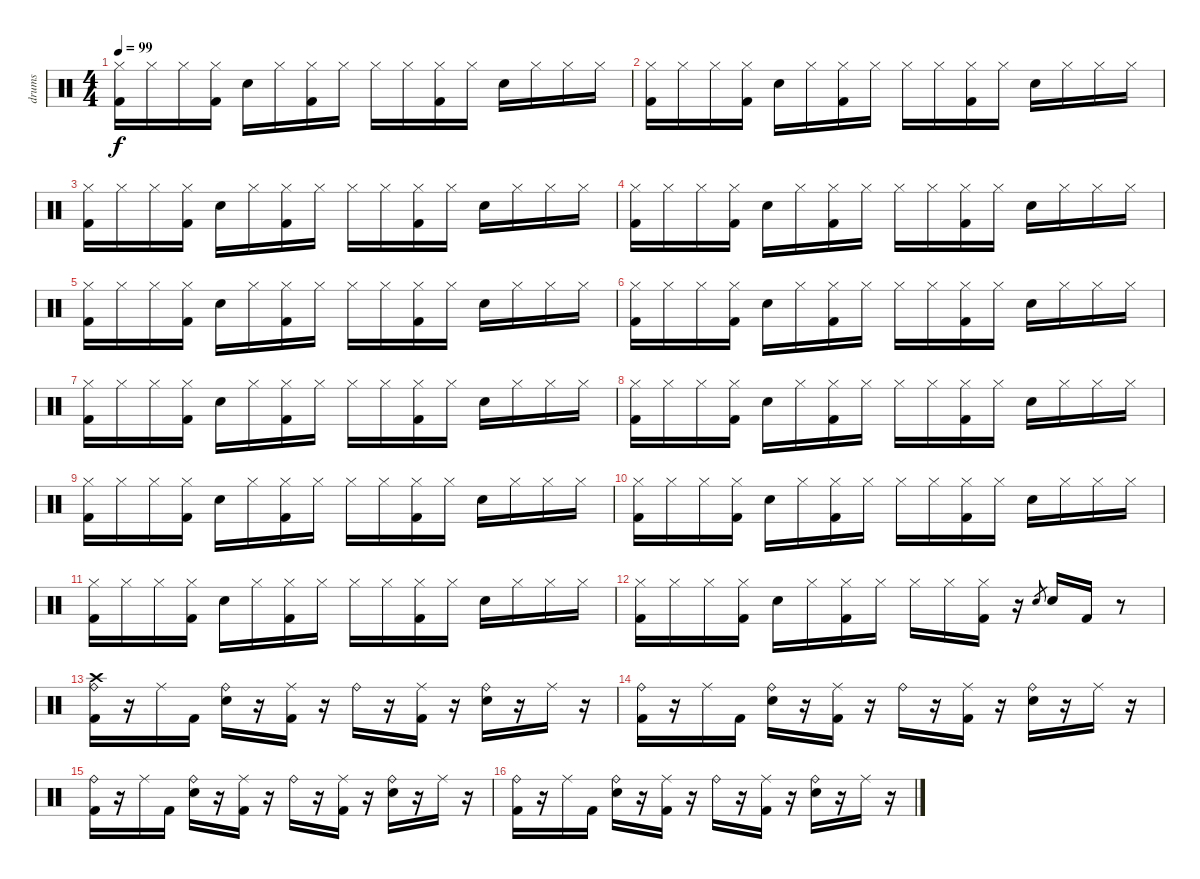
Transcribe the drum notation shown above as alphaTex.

\track ("drums" "drums") {instrument percussion}
\staff {score}
\articulation defaults
\ts (4 4)
\tempo 99
\clef neutral
\ks c
("Hi-Hat (closed)" "Kick (hit) 2").16{dy f} "Hi-Hat (closed)".16 "Hi-Hat (closed)".16 ("Hi-Hat (closed)" "Kick (hit) 2").16 "Snare (hit) 2".16 "Hi-Hat (closed)".16 ("Hi-Hat (closed)" "Kick (hit) 2").16 "Hi-Hat (closed)".16 "Hi-Hat (closed)"{nh}.16 "Hi-Hat (closed)".16 ("Hi-Hat (closed)" "Kick (hit) 2").16 "Hi-Hat (closed)".16 "Snare (hit) 2".16 "Hi-Hat (closed)".16 "Hi-Hat (closed)".16 "Hi-Hat (closed)".16 |
("Hi-Hat (closed)" "Kick (hit) 2").16 "Hi-Hat (closed)".16 "Hi-Hat (closed)".16 ("Hi-Hat (closed)" "Kick (hit) 2").16 "Snare (hit) 2".16 "Hi-Hat (closed)".16 ("Hi-Hat (closed)" "Kick (hit) 2").16 "Hi-Hat (closed)".16 "Hi-Hat (closed)"{nh}.16 "Hi-Hat (closed)".16 ("Hi-Hat (closed)" "Kick (hit) 2").16 "Hi-Hat (closed)".16 "Snare (hit) 2".16 "Hi-Hat (closed)".16 "Hi-Hat (closed)".16 "Hi-Hat (closed)".16 |
("Hi-Hat (closed)" "Kick (hit) 2").16 "Hi-Hat (closed)".16 "Hi-Hat (closed)".16 ("Hi-Hat (closed)" "Kick (hit) 2").16 "Snare (hit) 2".16 "Hi-Hat (closed)".16 ("Hi-Hat (closed)" "Kick (hit) 2").16 "Hi-Hat (closed)".16 "Hi-Hat (closed)"{nh}.16 "Hi-Hat (closed)".16 ("Hi-Hat (closed)" "Kick (hit) 2").16 "Hi-Hat (closed)".16 "Snare (hit) 2".16 "Hi-Hat (closed)".16 "Hi-Hat (closed)".16 "Hi-Hat (closed)".16 |
("Hi-Hat (closed)" "Kick (hit) 2").16 "Hi-Hat (closed)".16 "Hi-Hat (closed)".16 ("Hi-Hat (closed)" "Kick (hit) 2").16 "Snare (hit) 2".16 "Hi-Hat (closed)".16 ("Hi-Hat (closed)" "Kick (hit) 2").16 "Hi-Hat (closed)".16 "Hi-Hat (closed)"{nh}.16 "Hi-Hat (closed)".16 ("Hi-Hat (closed)" "Kick (hit) 2").16 "Hi-Hat (closed)".16 "Snare (hit) 2".16 "Hi-Hat (closed)".16 "Hi-Hat (closed)".16 "Hi-Hat (closed)".16 |
("Hi-Hat (closed)" "Kick (hit) 2").16 "Hi-Hat (closed)".16 "Hi-Hat (closed)".16 ("Hi-Hat (closed)" "Kick (hit) 2").16 "Snare (hit) 2".16 "Hi-Hat (closed)".16 ("Hi-Hat (closed)" "Kick (hit) 2").16 "Hi-Hat (closed)".16 "Hi-Hat (closed)"{nh}.16 "Hi-Hat (closed)".16 ("Hi-Hat (closed)" "Kick (hit) 2").16 "Hi-Hat (closed)".16 "Snare (hit) 2".16 "Hi-Hat (closed)".16 "Hi-Hat (closed)".16 "Hi-Hat (closed)".16 |
("Hi-Hat (closed)" "Kick (hit) 2").16 "Hi-Hat (closed)".16 "Hi-Hat (closed)".16 ("Hi-Hat (closed)" "Kick (hit) 2").16 "Snare (hit) 2".16 "Hi-Hat (closed)".16 ("Hi-Hat (closed)" "Kick (hit) 2").16 "Hi-Hat (closed)".16 "Hi-Hat (closed)"{nh}.16 "Hi-Hat (closed)".16 ("Hi-Hat (closed)" "Kick (hit) 2").16 "Hi-Hat (closed)".16 "Snare (hit) 2".16 "Hi-Hat (closed)".16 "Hi-Hat (closed)".16 "Hi-Hat (closed)".16 |
("Hi-Hat (closed)" "Kick (hit) 2").16 "Hi-Hat (closed)".16 "Hi-Hat (closed)".16 ("Hi-Hat (closed)" "Kick (hit) 2").16 "Snare (hit) 2".16 "Hi-Hat (closed)".16 ("Hi-Hat (closed)" "Kick (hit) 2").16 "Hi-Hat (closed)".16 "Hi-Hat (closed)"{nh}.16 "Hi-Hat (closed)".16 ("Hi-Hat (closed)" "Kick (hit) 2").16 "Hi-Hat (closed)".16 "Snare (hit) 2".16 "Hi-Hat (closed)".16 "Hi-Hat (closed)".16 "Hi-Hat (closed)".16 |
("Hi-Hat (closed)" "Kick (hit) 2").16 "Hi-Hat (closed)".16 "Hi-Hat (closed)".16 ("Hi-Hat (closed)" "Kick (hit) 2").16 "Snare (hit) 2".16 "Hi-Hat (closed)".16 ("Hi-Hat (closed)" "Kick (hit) 2").16 "Hi-Hat (closed)".16 "Hi-Hat (closed)"{nh}.16 "Hi-Hat (closed)".16 ("Hi-Hat (closed)" "Kick (hit) 2").16 "Hi-Hat (closed)".16 "Snare (hit) 2".16 "Hi-Hat (closed)".16 "Hi-Hat (closed)".16 "Hi-Hat (closed)".16 |
("Hi-Hat (closed)" "Kick (hit) 2").16 "Hi-Hat (closed)".16 "Hi-Hat (closed)".16 ("Hi-Hat (closed)" "Kick (hit) 2").16 "Snare (hit) 2".16 "Hi-Hat (closed)".16 ("Hi-Hat (closed)" "Kick (hit) 2").16 "Hi-Hat (closed)".16 "Hi-Hat (closed)"{nh}.16 "Hi-Hat (closed)".16 ("Hi-Hat (closed)" "Kick (hit) 2").16 "Hi-Hat (closed)".16 "Snare (hit) 2".16 "Hi-Hat (closed)".16 "Hi-Hat (closed)".16 "Hi-Hat (closed)".16 |
("Hi-Hat (closed)" "Kick (hit) 2").16 "Hi-Hat (closed)".16 "Hi-Hat (closed)".16 ("Hi-Hat (closed)" "Kick (hit) 2").16 "Snare (hit) 2".16 "Hi-Hat (closed)".16 ("Hi-Hat (closed)" "Kick (hit) 2").16 "Hi-Hat (closed)".16 "Hi-Hat (closed)"{nh}.16 "Hi-Hat (closed)".16 ("Hi-Hat (closed)" "Kick (hit) 2").16 "Hi-Hat (closed)".16 "Snare (hit) 2".16 "Hi-Hat (closed)".16 "Hi-Hat (closed)".16 "Hi-Hat (closed)".16 |
("Hi-Hat (closed)" "Kick (hit) 2").16 "Hi-Hat (closed)".16 "Hi-Hat (closed)".16 ("Hi-Hat (closed)" "Kick (hit) 2").16 "Snare (hit) 2".16 "Hi-Hat (closed)".16 ("Hi-Hat (closed)" "Kick (hit) 2").16 "Hi-Hat (closed)".16 "Hi-Hat (closed)"{nh}.16 "Hi-Hat (closed)".16 ("Hi-Hat (closed)" "Kick (hit) 2").16 "Hi-Hat (closed)".16 "Snare (hit) 2".16 "Hi-Hat (closed)".16 "Hi-Hat (closed)".16 "Hi-Hat (closed)".16 |
("Hi-Hat (closed)" "Kick (hit) 2").16 "Hi-Hat (closed)".16 "Hi-Hat (closed)".16 ("Hi-Hat (closed)" "Kick (hit) 2").16 "Snare (hit) 2".16 "Hi-Hat (closed)".16 ("Hi-Hat (closed)" "Kick (hit) 2").16 "Hi-Hat (closed)".16 "Hi-Hat (closed)"{nh}.16 "Hi-Hat (closed)".16 ("Hi-Hat (closed)" "Kick (hit) 2").16 r.16 "Snare (hit) 2".8{gr} "Snare (hit) 2".16 "Kick (hit) 2".16 r.8 |
("Crash high (hit)" "Ride (bell)" "Kick (hit) 2").16 r.16 "Ride (middle)".16 "Kick (hit) 2".16 ("Ride (bell)" "Snare (hit) 2").16 r.16 ("Ride (middle)" "Kick (hit) 2").16 r.16 "Ride (bell)"{nh}.16 r.16 ("Ride (middle)" "Kick (hit) 2").16 r.16 ("Ride (bell)" "Snare (hit) 2").16 r.16 "Ride (middle)".16 r.16 |
("Ride (bell)" "Kick (hit) 2").16 r.16 "Ride (middle)".16 "Kick (hit) 2".16 ("Ride (bell)" "Snare (hit) 2").16 r.16 ("Ride (middle)" "Kick (hit) 2").16 r.16 "Ride (bell)"{nh}.16 r.16 ("Ride (middle)" "Kick (hit) 2").16 r.16 ("Ride (bell)" "Snare (hit) 2").16 r.16 "Ride (middle)".16 r.16 |
("Ride (bell)" "Kick (hit) 2").16 r.16 "Ride (middle)".16 "Kick (hit) 2".16 ("Ride (bell)" "Snare (hit) 2").16 r.16 ("Ride (middle)" "Kick (hit) 2").16 r.16 "Ride (bell)"{nh}.16 r.16 ("Ride (middle)" "Kick (hit) 2").16 r.16 ("Ride (bell)" "Snare (hit) 2").16 r.16 "Ride (middle)".16 r.16 |
("Ride (bell)" "Kick (hit) 2").16 r.16 "Ride (middle)".16 "Kick (hit) 2".16 ("Ride (bell)" "Snare (hit) 2").16 r.16 ("Ride (middle)" "Kick (hit) 2").16 r.16 "Ride (bell)"{nh}.16 r.16 ("Ride (middle)" "Kick (hit) 2").16 r.16 ("Ride (bell)" "Snare (hit) 2").16 r.16 "Ride (middle)".16 r.16
